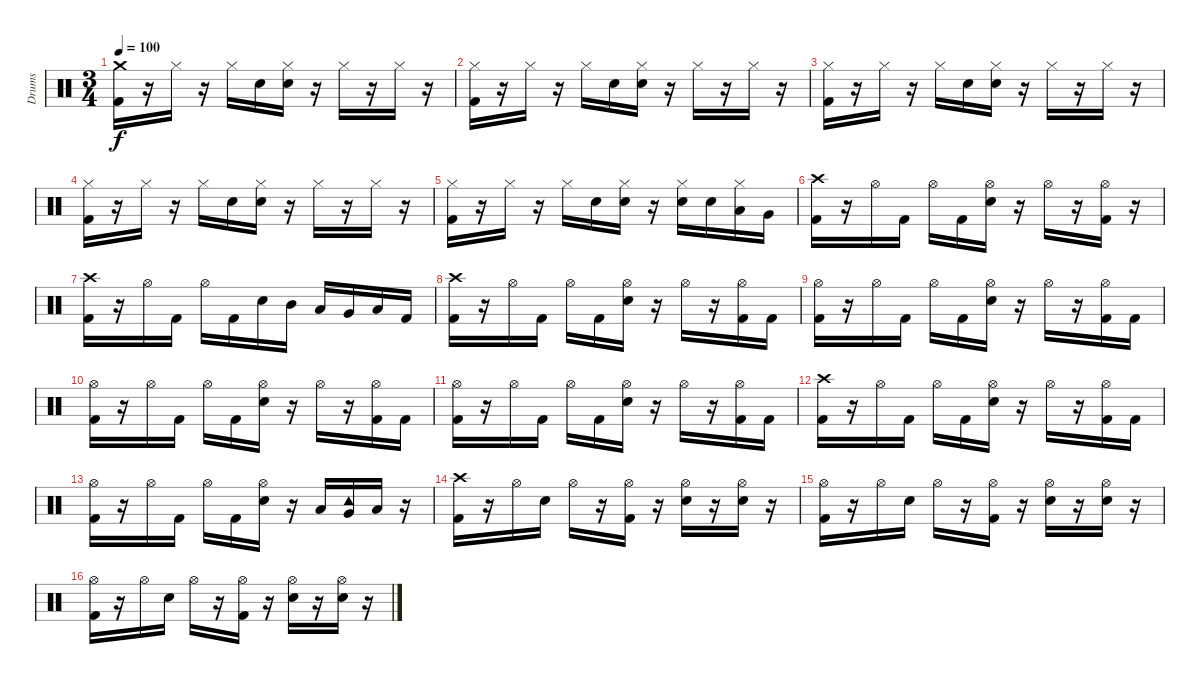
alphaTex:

\track ("Drums" "Drums") {instrument percussion}
\staff {score}
\articulation defaults
\ts (3 4)
\tempo 100
\clef neutral
\ks c
("Crash medium (hit)" "Kick (hit) 2").16{dy f} r.16 "Hi-Hat (closed)".16 r.16 "Hi-Hat (closed)".16 "Snare (hit) 2".16 ("Hi-Hat (closed)" "Snare (hit) 2").16 r.16 "Hi-Hat (closed)".16 r.16 "Hi-Hat (closed)".16 r.16 |
("Hi-Hat (closed)" "Kick (hit) 2").16 r.16 "Hi-Hat (closed)".16 r.16 "Hi-Hat (closed)".16 "Snare (hit) 2".16 ("Hi-Hat (closed)" "Snare (hit) 2").16 r.16 "Hi-Hat (closed)".16 r.16 "Hi-Hat (closed)".16 r.16 |
("Hi-Hat (closed)" "Kick (hit) 2").16 r.16 "Hi-Hat (closed)".16 r.16 "Hi-Hat (closed)".16 "Snare (hit) 2".16 ("Hi-Hat (closed)" "Snare (hit) 2").16 r.16 "Hi-Hat (closed)".16 r.16 "Hi-Hat (closed)".16 r.16 |
("Hi-Hat (closed)" "Kick (hit) 2").16 r.16 "Hi-Hat (closed)".16 r.16 "Hi-Hat (closed)".16 "Snare (hit) 2".16 ("Hi-Hat (closed)" "Snare (hit) 2").16 r.16 "Hi-Hat (closed)".16 r.16 "Hi-Hat (closed)".16 r.16 |
("Hi-Hat (closed)" "Kick (hit) 2").16 r.16 "Hi-Hat (closed)".16 r.16 "Hi-Hat (closed)".16 "Snare (hit) 2".16 ("Hi-Hat (closed)" "Snare (hit) 2").16 r.16 ("Hi-Hat (closed)" "Snare (hit) 2").16 "Snare (hit) 2".16 ("Hi-Hat (closed)" "Low Tom (hit)").16 "Very Low Tom (hit)".16 |
("Crash high (hit)" "Kick (hit) 2").16 r.16 "Hi-Hat (open)".16 "Kick (hit) 2".16 "Hi-Hat (open)".16 "Kick (hit) 2".16 ("Hi-Hat (open)" "Snare (hit) 2").16 r.16 "Hi-Hat (open)".16 r.16 ("Hi-Hat (open)" "Kick (hit) 2").16 r.16 |
("Crash high (hit)" "Kick (hit) 2").16 r.16 "Hi-Hat (open)".16 "Kick (hit) 2".16 "Hi-Hat (open)".16 "Kick (hit) 2".16 "Snare (hit) 2".16 "Mid Tom (hit)".16 "Low Tom (hit)".16 "Very Low Tom (hit)".16 "Low Floor Tom (hit)".16 "Kick (hit) 2".16 |
("Crash high (hit)" "Kick (hit) 2").16 r.16 "Hi-Hat (open)".16 "Kick (hit) 2".16 "Hi-Hat (open)".16 "Kick (hit) 2".16 ("Hi-Hat (open)" "Snare (hit) 2").16 r.16 "Hi-Hat (open)".16 r.16 ("Hi-Hat (open)" "Kick (hit) 2").16 "Kick (hit) 2".16 |
("Hi-Hat (open)" "Kick (hit) 2").16 r.16 "Hi-Hat (open)".16 "Kick (hit) 2".16 "Hi-Hat (open)".16 "Kick (hit) 2".16 ("Hi-Hat (open)" "Snare (hit) 2").16 r.16 "Hi-Hat (open)".16 r.16 ("Hi-Hat (open)" "Kick (hit) 2").16 "Kick (hit) 2".16 |
("Hi-Hat (open)" "Kick (hit) 2").16 r.16 "Hi-Hat (open)".16 "Kick (hit) 2".16 "Hi-Hat (open)".16 "Kick (hit) 2".16 ("Hi-Hat (open)" "Snare (hit) 2").16 r.16 "Hi-Hat (open)".16 r.16 ("Hi-Hat (open)" "Kick (hit) 2").16 "Kick (hit) 2".16 |
("Hi-Hat (open)" "Kick (hit) 2").16 r.16 "Hi-Hat (open)".16 "Kick (hit) 2".16 "Hi-Hat (open)".16 "Kick (hit) 2".16 ("Hi-Hat (open)" "Snare (hit) 2").16 r.16 "Hi-Hat (open)".16 r.16 ("Hi-Hat (open)" "Kick (hit) 2").16 "Kick (hit) 2".16 |
("Crash high (hit)" "Kick (hit) 2").16 r.16 "Hi-Hat (open)".16 "Kick (hit) 2".16 "Hi-Hat (open)".16 "Kick (hit) 2".16 ("Hi-Hat (open)" "Snare (hit) 2").16 r.16 "Hi-Hat (open)".16 r.16 ("Hi-Hat (open)" "Kick (hit) 2").16 "Kick (hit) 2".16 |
("Hi-Hat (open)" "Kick (hit) 2").16 r.16 "Hi-Hat (open)".16 "Kick (hit) 2".16 "Hi-Hat (open)".16 "Kick (hit) 2".16 ("Hi-Hat (open)" "Snare (hit) 2").16 r.16 "Low Tom (hit)".16 ("Tambourine (hit)" "Very Low Tom (hit)").16 "Low Floor Tom (hit)".16 r.16 |
("Crash high (hit)" "Kick (hit) 2").16 r.16 "Hi-Hat (open)".16 "Snare (hit) 2".16 "Hi-Hat (open)".16 r.16 ("Hi-Hat (open)" "Kick (hit) 2").16 r.16 ("Hi-Hat (open)" "Snare (hit) 2").16 r.16 ("Hi-Hat (open)" "Snare (hit) 2").16 r.16 |
("Hi-Hat (open)" "Kick (hit) 2").16 r.16 "Hi-Hat (open)".16 "Snare (hit) 2".16 "Hi-Hat (open)".16 r.16 ("Hi-Hat (open)" "Kick (hit) 2").16 r.16 ("Hi-Hat (open)" "Snare (hit) 2").16 r.16 ("Hi-Hat (open)" "Snare (hit) 2").16 r.16 |
("Hi-Hat (open)" "Kick (hit) 2").16 r.16 "Hi-Hat (open)".16 "Snare (hit) 2".16 "Hi-Hat (open)".16 r.16 ("Hi-Hat (open)" "Kick (hit) 2").16 r.16 ("Hi-Hat (open)" "Snare (hit) 2").16 r.16 ("Hi-Hat (open)" "Snare (hit) 2").16 r.16
